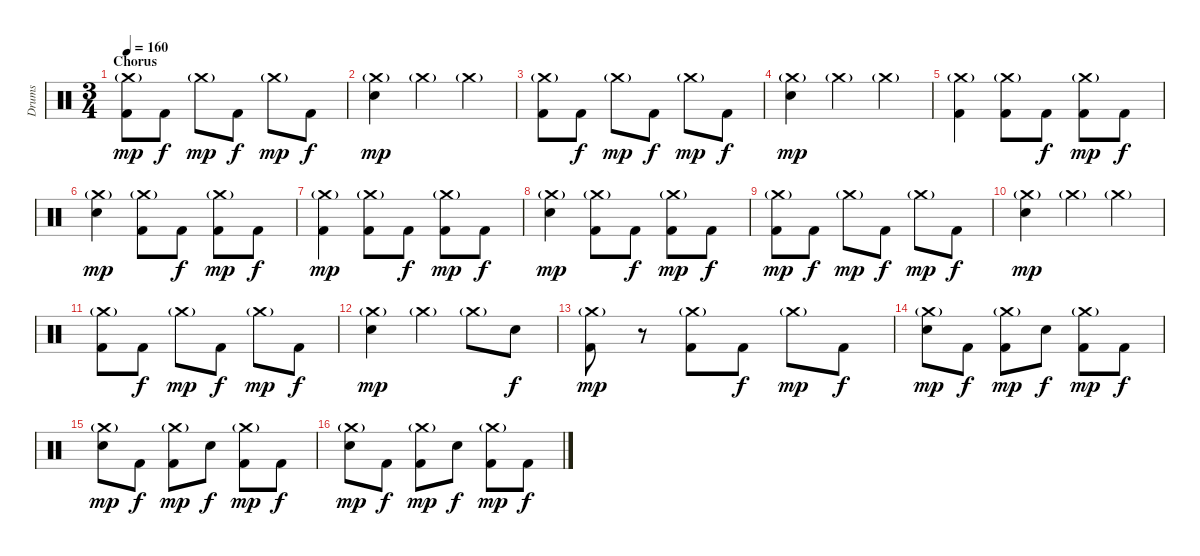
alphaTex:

\track ("Drums" "Drums") {instrument percussion}
\staff {score}
\articulation defaults
\ts (3 4)
\section ("" "Chorus")
\tempo 160
\clef neutral
\ks c
("Crash medium (hit)"{g} "Kick (hit) 2").8{dy mp} "Kick (hit) 2".8{dy f} "Crash medium (hit)"{g}.8{dy mp} "Kick (hit) 2".8{dy f} "Crash medium (hit)"{g}.8{dy mp} "Kick (hit) 2".8{dy f} |
("Crash medium (hit)"{g} "Snare (hit) 2").4{dy mp} "Crash medium (hit)"{g}.4 "Crash medium (hit)"{g}.4 |
("Crash medium (hit)"{g} "Kick (hit) 2").8 "Kick (hit) 2".8{dy f} "Crash medium (hit)"{g}.8{dy mp} "Kick (hit) 2".8{dy f} "Crash medium (hit)"{g}.8{dy mp} "Kick (hit) 2".8{dy f} |
("Crash medium (hit)"{g} "Snare (hit) 2").4{dy mp} "Crash medium (hit)"{g}.4 "Crash medium (hit)"{g}.4 |
("Crash medium (hit)"{g} "Kick (hit) 2").4 ("Crash medium (hit)"{g} "Kick (hit) 2").8 "Kick (hit) 2".8{dy f} ("Crash medium (hit)"{g} "Kick (hit) 2").8{dy mp} "Kick (hit) 2".8{dy f} |
("Crash medium (hit)"{g} "Snare (hit) 2").4{dy mp} ("Crash medium (hit)"{g} "Kick (hit) 2").8 "Kick (hit) 2".8{dy f} ("Crash medium (hit)"{g} "Kick (hit) 2").8{dy mp} "Kick (hit) 2".8{dy f} |
("Crash medium (hit)"{g} "Kick (hit) 2").4{dy mp} ("Crash medium (hit)"{g} "Kick (hit) 2").8 "Kick (hit) 2".8{dy f} ("Crash medium (hit)"{g} "Kick (hit) 2").8{dy mp} "Kick (hit) 2".8{dy f} |
("Crash medium (hit)"{g} "Snare (hit) 2").4{dy mp} ("Crash medium (hit)"{g} "Kick (hit) 2").8 "Kick (hit) 2".8{dy f} ("Crash medium (hit)"{g} "Kick (hit) 2").8{dy mp} "Kick (hit) 2".8{dy f} |
("Crash medium (hit)"{g} "Kick (hit) 2").8{dy mp} "Kick (hit) 2".8{dy f} "Crash medium (hit)"{g}.8{dy mp} "Kick (hit) 2".8{dy f} "Crash medium (hit)"{g}.8{dy mp} "Kick (hit) 2".8{dy f} |
("Crash medium (hit)"{g} "Snare (hit) 2").4{dy mp} "Crash medium (hit)"{g}.4 "Crash medium (hit)"{g}.4 |
("Crash medium (hit)"{g} "Kick (hit) 2").8 "Kick (hit) 2".8{dy f} "Crash medium (hit)"{g}.8{dy mp} "Kick (hit) 2".8{dy f} "Crash medium (hit)"{g}.8{dy mp} "Kick (hit) 2".8{dy f} |
("Crash medium (hit)"{g} "Snare (hit) 2").4{dy mp} "Crash medium (hit)"{g}.4 "Crash medium (hit)"{g}.8 "Snare (hit) 2".8{dy f} |
("Crash medium (hit)"{g} "Kick (hit) 2").8{dy mp} r.8 ("Crash medium (hit)"{g} "Kick (hit) 2").8 "Kick (hit) 2".8{dy f} "Crash medium (hit)"{g}.8{dy mp} "Kick (hit) 2".8{dy f} |
("Crash medium (hit)"{g} "Snare (hit) 2").8{dy mp} "Kick (hit) 2".8{dy f} ("Crash medium (hit)"{g} "Kick (hit) 2").8{dy mp} "Snare (hit) 2".8{dy f} ("Crash medium (hit)"{g} "Kick (hit) 2").8{dy mp} "Kick (hit) 2".8{dy f} |
("Crash medium (hit)"{g} "Snare (hit) 2").8{dy mp} "Kick (hit) 2".8{dy f} ("Crash medium (hit)"{g} "Kick (hit) 2").8{dy mp} "Snare (hit) 2".8{dy f} ("Crash medium (hit)"{g} "Kick (hit) 2").8{dy mp} "Kick (hit) 2".8{dy f} |
("Crash medium (hit)"{g} "Snare (hit) 2").8{dy mp} "Kick (hit) 2".8{dy f} ("Crash medium (hit)"{g} "Kick (hit) 2").8{dy mp} "Snare (hit) 2".8{dy f} ("Crash medium (hit)"{g} "Kick (hit) 2").8{dy mp} "Kick (hit) 2".8{dy f}
